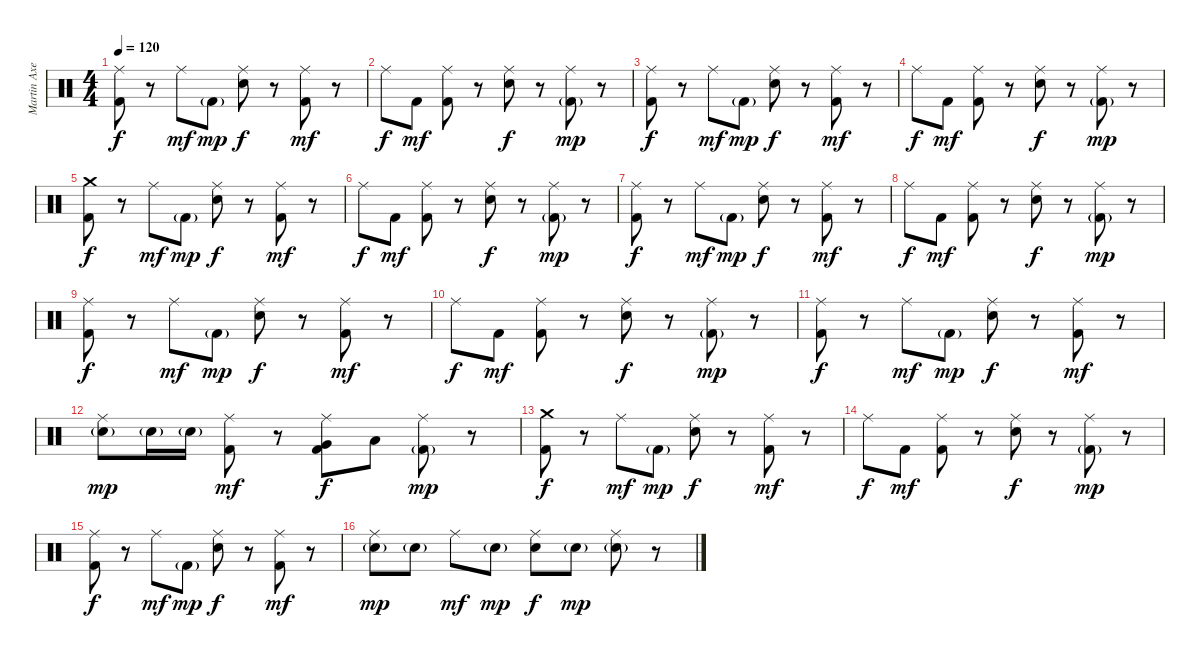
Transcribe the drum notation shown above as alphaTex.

\track ("Martin Axenrot - Drums" "Martin Axe") {instrument percussion}
\staff {score}
\articulation defaults
\ts (4 4)
\tempo 120
\clef neutral
\ks c
("Ride (middle)" "Kick (hit) 2").8{dy f} r.8 "Ride (middle)".8{dy mf} "Kick (hit) 2"{g}.8{dy mp} ("Ride (middle)" "Snare (hit) 2").8{dy f} r.8 ("Ride (middle)" "Kick (hit) 2").8{dy mf} r.8 |
"Ride (middle)".8{dy f} "Kick (hit) 2".8{dy mf} ("Ride (middle)" "Kick (hit) 2").8 r.8 ("Ride (middle)" "Snare (hit) 2").8{dy f} r.8 ("Ride (middle)" "Kick (hit) 2"{g}).8{dy mp} r.8 |
("Ride (middle)" "Kick (hit) 2").8{dy f} r.8 "Ride (middle)".8{dy mf} "Kick (hit) 2"{g}.8{dy mp} ("Ride (middle)" "Snare (hit) 2").8{dy f} r.8 ("Ride (middle)" "Kick (hit) 2").8{dy mf} r.8 |
"Ride (middle)".8{dy f} "Kick (hit) 2".8{dy mf} ("Ride (middle)" "Kick (hit) 2").8 r.8 ("Ride (middle)" "Snare (hit) 2").8{dy f} r.8 ("Ride (middle)" "Kick (hit) 2"{g}).8{dy mp} r.8 |
("Crash medium (hit)" "Kick (hit) 2").8{dy f} r.8 "Ride (middle)".8{dy mf} "Kick (hit) 2"{g}.8{dy mp} ("Ride (middle)" "Snare (hit) 2").8{dy f} r.8 ("Ride (middle)" "Kick (hit) 2").8{dy mf} r.8 |
"Ride (middle)".8{dy f} "Kick (hit) 2".8{dy mf} ("Ride (middle)" "Kick (hit) 2").8 r.8 ("Ride (middle)" "Snare (hit) 2").8{dy f} r.8 ("Ride (middle)" "Kick (hit) 2"{g}).8{dy mp} r.8 |
("Ride (middle)" "Kick (hit) 2").8{dy f} r.8 "Ride (middle)".8{dy mf} "Kick (hit) 2"{g}.8{dy mp} ("Ride (middle)" "Snare (hit) 2").8{dy f} r.8 ("Ride (middle)" "Kick (hit) 2").8{dy mf} r.8 |
"Ride (middle)".8{dy f} "Kick (hit) 2".8{dy mf} ("Ride (middle)" "Kick (hit) 2").8 r.8 ("Ride (middle)" "Snare (hit) 2").8{dy f} r.8 ("Ride (middle)" "Kick (hit) 2"{g}).8{dy mp} r.8 |
("Ride (middle)" "Kick (hit) 2").8{dy f} r.8 "Ride (middle)".8{dy mf} "Kick (hit) 2"{g}.8{dy mp} ("Ride (middle)" "Snare (hit) 2").8{dy f} r.8 ("Ride (middle)" "Kick (hit) 2").8{dy mf} r.8 |
"Ride (middle)".8{dy f} "Kick (hit) 2".8{dy mf} ("Ride (middle)" "Kick (hit) 2").8 r.8 ("Ride (middle)" "Snare (hit) 2").8{dy f} r.8 ("Ride (middle)" "Kick (hit) 2"{g}).8{dy mp} r.8 |
("Ride (middle)" "Kick (hit) 2").8{dy f} r.8 "Ride (middle)".8{dy mf} "Kick (hit) 2"{g}.8{dy mp} ("Ride (middle)" "Snare (hit) 2").8{dy f} r.8 ("Ride (middle)" "Kick (hit) 2").8{dy mf} r.8 |
("Ride (middle)" "Snare (hit) 2"{g}).8{dy mp} "Snare (hit) 2"{g}.16 "Snare (hit) 2"{g}.16 ("Ride (middle)" "Kick (hit) 2").8{dy mf} r.8 ("Ride (middle)" "Very Low Tom (hit)" "Kick (hit) 2").8{dy f} "Low Floor Tom (hit)".8 ("Ride (middle)" "Kick (hit) 2"{g}).8{dy mp} r.8 |
("Crash medium (hit)" "Kick (hit) 2").8{dy f} r.8 "Ride (middle)".8{dy mf} "Kick (hit) 2"{g}.8{dy mp} ("Ride (middle)" "Snare (hit) 2").8{dy f} r.8 ("Ride (middle)" "Kick (hit) 2").8{dy mf} r.8 |
"Ride (middle)".8{dy f} "Kick (hit) 2".8{dy mf} ("Ride (middle)" "Kick (hit) 2").8 r.8 ("Ride (middle)" "Snare (hit) 2").8{dy f} r.8 ("Ride (middle)" "Kick (hit) 2"{g}).8{dy mp} r.8 |
("Ride (middle)" "Kick (hit) 2").8{dy f} r.8 "Ride (middle)".8{dy mf} "Kick (hit) 2"{g}.8{dy mp} ("Ride (middle)" "Snare (hit) 2").8{dy f} r.8 ("Ride (middle)" "Kick (hit) 2").8{dy mf} r.8 |
("Ride (middle)" "Snare (hit) 2"{g}).8{dy mp} "Snare (hit) 2"{g}.8 "Ride (middle)".8{dy mf} "Snare (hit) 2"{g}.8{dy mp} ("Ride (middle)" "Snare (hit) 2").8{dy f} "Snare (hit) 2"{g}.8{dy mp} ("Ride (middle)" "Snare (hit) 2"{g}).8 r.8
